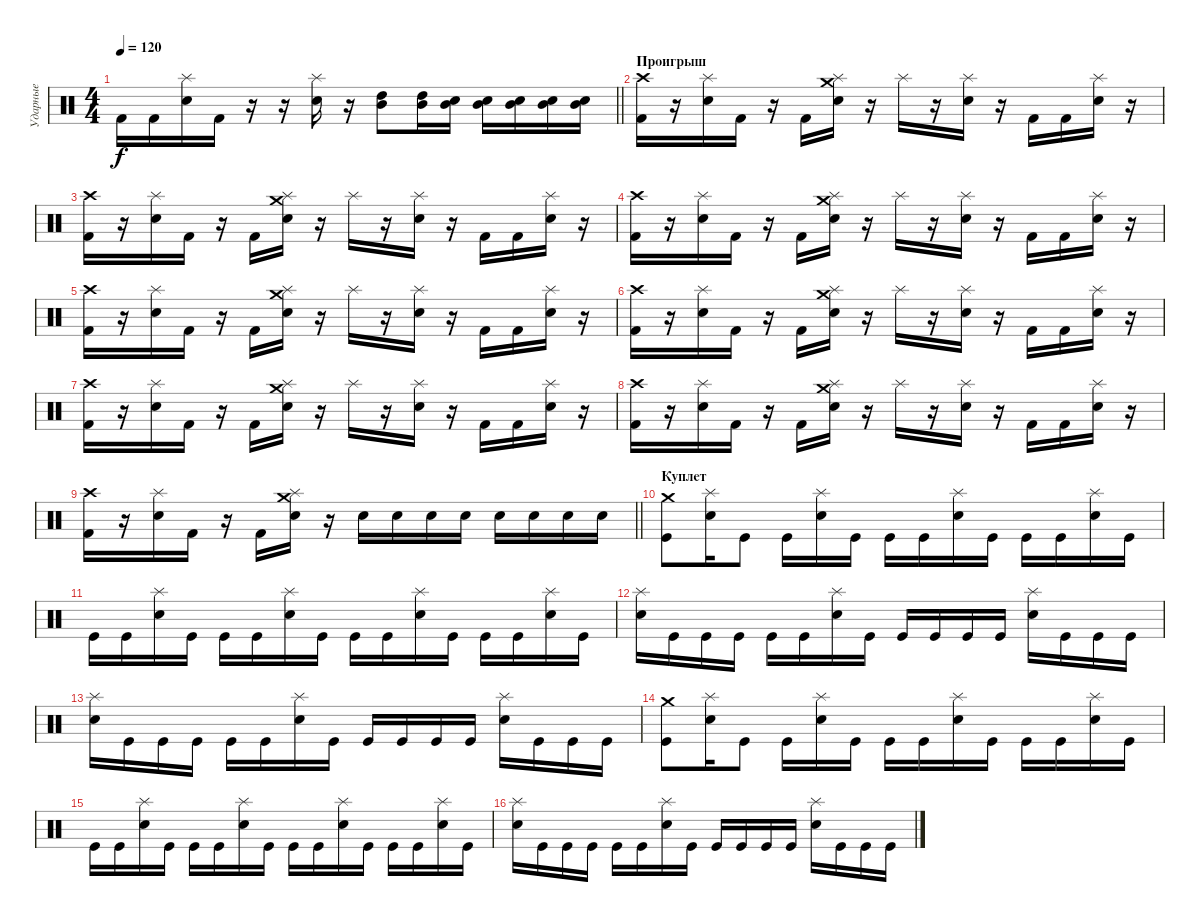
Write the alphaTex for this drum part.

\track ("Ударные" "Ударные") {instrument percussion}
\staff {score}
\articulation defaults
\ts (4 4)
\tempo 120
\clef neutral
\barLineRight lightlight
\ks c "Kick (hit) 2".16{dy f} "Kick (hit) 2".16
("Splash (hit)" "Electric Snare (hit)").16 "Kick (hit) 2".16 r.16 r.16 ("Splash (hit)" "Electric Snare (hit)").16 r.16 ("High Tom (hit)" "Mid Tom (hit)").8 ("High Tom (hit)" "Mid Tom (hit)").16 ("Mid Tom (hit)" "Electric Snare (hit)").16 ("Mid Tom (hit)" "Electric Snare (hit)").16 ("Mid Tom (hit)" "Electric Snare (hit)").16 ("Mid Tom (hit)" "Electric Snare (hit)").16 ("Mid Tom (hit)" "Electric Snare (hit)").16 |
\section ("" "Проигрыш")
("Crash high (hit)" "Kick (hit) 2").16 r.16 ("Splash (hit)" "Electric Snare (hit)").16 "Kick (hit) 2".16 r.16 "Kick (hit) 2".16 ("Crash medium (hit)" "Splash (hit)" "Electric Snare (hit)").16 r.16 "Splash (hit)".16 r.16 ("Splash (hit)" "Electric Snare (hit)").16 r.16 "Kick (hit) 2".16 "Kick (hit) 2".16 ("Splash (hit)" "Electric Snare (hit)").16 r.16 |
("Crash high (hit)" "Kick (hit) 2").16 r.16 ("Splash (hit)" "Electric Snare (hit)").16 "Kick (hit) 2".16 r.16 "Kick (hit) 2".16 ("Crash medium (hit)" "Splash (hit)" "Electric Snare (hit)").16 r.16 "Splash (hit)".16 r.16 ("Splash (hit)" "Electric Snare (hit)").16 r.16 "Kick (hit) 2".16 "Kick (hit) 2".16 ("Splash (hit)" "Electric Snare (hit)").16 r.16 |
("Crash high (hit)" "Kick (hit) 2").16 r.16 ("Splash (hit)" "Electric Snare (hit)").16 "Kick (hit) 2".16 r.16 "Kick (hit) 2".16 ("Crash medium (hit)" "Splash (hit)" "Electric Snare (hit)").16 r.16 "Splash (hit)".16 r.16 ("Splash (hit)" "Electric Snare (hit)").16 r.16 "Kick (hit) 2".16 "Kick (hit) 2".16 ("Splash (hit)" "Electric Snare (hit)").16 r.16 |
("Crash high (hit)" "Kick (hit) 2").16 r.16 ("Splash (hit)" "Electric Snare (hit)").16 "Kick (hit) 2".16 r.16 "Kick (hit) 2".16 ("Crash medium (hit)" "Splash (hit)" "Electric Snare (hit)").16 r.16 "Splash (hit)".16 r.16 ("Splash (hit)" "Electric Snare (hit)").16 r.16 "Kick (hit) 2".16 "Kick (hit) 2".16 ("Splash (hit)" "Electric Snare (hit)").16 r.16 |
("Crash high (hit)" "Kick (hit) 2").16 r.16 ("Splash (hit)" "Electric Snare (hit)").16 "Kick (hit) 2".16 r.16 "Kick (hit) 2".16 ("Crash medium (hit)" "Splash (hit)" "Electric Snare (hit)").16 r.16 "Splash (hit)".16 r.16 ("Splash (hit)" "Electric Snare (hit)").16 r.16 "Kick (hit) 2".16 "Kick (hit) 2".16 ("Splash (hit)" "Electric Snare (hit)").16 r.16 |
("Crash high (hit)" "Kick (hit) 2").16 r.16 ("Splash (hit)" "Electric Snare (hit)").16 "Kick (hit) 2".16 r.16 "Kick (hit) 2".16 ("Crash medium (hit)" "Splash (hit)" "Electric Snare (hit)").16 r.16 "Splash (hit)".16 r.16 ("Splash (hit)" "Electric Snare (hit)").16 r.16 "Kick (hit) 2".16 "Kick (hit) 2".16 ("Splash (hit)" "Electric Snare (hit)").16 r.16 |
("Crash high (hit)" "Kick (hit) 2").16 r.16 ("Splash (hit)" "Electric Snare (hit)").16 "Kick (hit) 2".16 r.16 "Kick (hit) 2".16 ("Crash medium (hit)" "Splash (hit)" "Electric Snare (hit)").16 r.16 "Splash (hit)".16 r.16 ("Splash (hit)" "Electric Snare (hit)").16 r.16 "Kick (hit) 2".16 "Kick (hit) 2".16 ("Splash (hit)" "Electric Snare (hit)").16 r.16 |
\barLineRight lightlight
("Crash high (hit)" "Kick (hit) 2").16 r.16 ("Splash (hit)" "Electric Snare (hit)").16 "Kick (hit) 2".16 r.16 "Kick (hit) 2".16 ("Crash medium (hit)" "Splash (hit)" "Electric Snare (hit)").16 r.16 "Electric Snare (hit)".16 "Electric Snare (hit)".16 "Electric Snare (hit)".16 "Electric Snare (hit)".16 "Electric Snare (hit)".16 "Electric Snare (hit)".16 "Electric Snare (hit)".16 "Electric Snare (hit)".16 |
\section ("" "Куплет")
("Crash medium (hit)" "Kick (hit)").8 ("Splash (hit)" "Electric Snare (hit)").16 "Kick (hit)".8 "Kick (hit)".16 ("Splash (hit)" "Electric Snare (hit)").16 "Kick (hit)".16 "Kick (hit)".16 "Kick (hit)".16 ("Splash (hit)" "Electric Snare (hit)").16 "Kick (hit)".16 "Kick (hit)".16 "Kick (hit)".16 ("Splash (hit)" "Electric Snare (hit)").16 "Kick (hit)".16 |
"Kick (hit)".16 "Kick (hit)".16 ("Splash (hit)" "Electric Snare (hit)").16 "Kick (hit)".16 "Kick (hit)".16 "Kick (hit)".16 ("Splash (hit)" "Electric Snare (hit)").16 "Kick (hit)".16 "Kick (hit)".16 "Kick (hit)".16 ("Splash (hit)" "Electric Snare (hit)").16 "Kick (hit)".16 "Kick (hit)".16 "Kick (hit)".16 ("Splash (hit)" "Electric Snare (hit)").16 "Kick (hit)".16 |
("Splash (hit)" "Electric Snare (hit)").16 "Kick (hit)".16 "Kick (hit)".16 "Kick (hit)".16 "Kick (hit)".16 "Kick (hit)".16 ("Splash (hit)" "Electric Snare (hit)").16 "Kick (hit)".16 "Kick (hit)".16 "Kick (hit)".16 "Kick (hit)".16 "Kick (hit)".16 ("Splash (hit)" "Electric Snare (hit)").16 "Kick (hit)".16 "Kick (hit)".16 "Kick (hit)".16 |
("Splash (hit)" "Electric Snare (hit)").16 "Kick (hit)".16 "Kick (hit)".16 "Kick (hit)".16 "Kick (hit)".16 "Kick (hit)".16 ("Splash (hit)" "Electric Snare (hit)").16 "Kick (hit)".16 "Kick (hit)".16 "Kick (hit)".16 "Kick (hit)".16 "Kick (hit)".16 ("Splash (hit)" "Electric Snare (hit)").16 "Kick (hit)".16 "Kick (hit)".16 "Kick (hit)".16 |
("Crash medium (hit)" "Kick (hit)").8 ("Splash (hit)" "Electric Snare (hit)").16 "Kick (hit)".8 "Kick (hit)".16 ("Splash (hit)" "Electric Snare (hit)").16 "Kick (hit)".16 "Kick (hit)".16 "Kick (hit)".16 ("Splash (hit)" "Electric Snare (hit)").16 "Kick (hit)".16 "Kick (hit)".16 "Kick (hit)".16 ("Splash (hit)" "Electric Snare (hit)").16 "Kick (hit)".16 |
"Kick (hit)".16 "Kick (hit)".16 ("Splash (hit)" "Electric Snare (hit)").16 "Kick (hit)".16 "Kick (hit)".16 "Kick (hit)".16 ("Splash (hit)" "Electric Snare (hit)").16 "Kick (hit)".16 "Kick (hit)".16 "Kick (hit)".16 ("Splash (hit)" "Electric Snare (hit)").16 "Kick (hit)".16 "Kick (hit)".16 "Kick (hit)".16 ("Splash (hit)" "Electric Snare (hit)").16 "Kick (hit)".16 |
("Splash (hit)" "Electric Snare (hit)").16 "Kick (hit)".16 "Kick (hit)".16 "Kick (hit)".16 "Kick (hit)".16 "Kick (hit)".16 ("Splash (hit)" "Electric Snare (hit)").16 "Kick (hit)".16 "Kick (hit)".16 "Kick (hit)".16 "Kick (hit)".16 "Kick (hit)".16 ("Splash (hit)" "Electric Snare (hit)").16 "Kick (hit)".16 "Kick (hit)".16 "Kick (hit)".16
